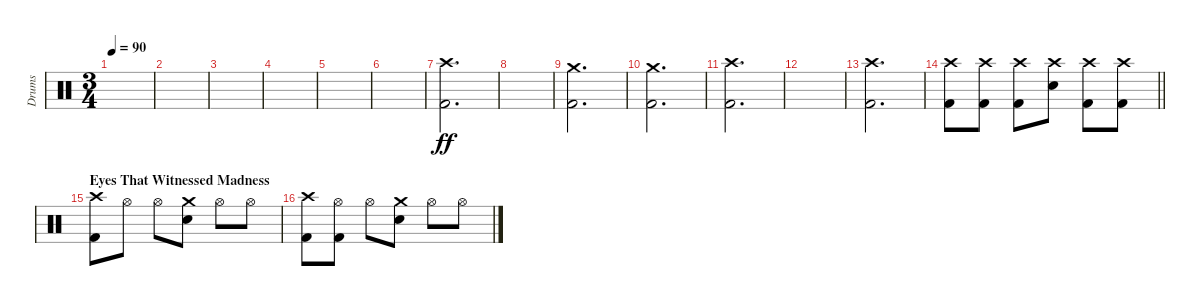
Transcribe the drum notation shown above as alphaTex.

\track ("Drums" "Drums") {instrument percussion}
\staff {score}
\articulation defaults
\ts (3 4)
\tempo 90
\clef neutral
\ks c
|
|
|
|
|
|
("Crash high (hit)" "Kick (hit) 2").2{d dy ff} |
|
("Crash medium (hit)" "Kick (hit) 2").2{d} |
("Crash medium (hit)" "Kick (hit) 2").2{d} |
("Crash high (hit)" "Kick (hit) 2").2{d} |
|
("Crash high (hit)" "Kick (hit) 2").2{d} |
\barLineRight lightlight
("Crash high (hit)" "Kick (hit) 2").8 ("Crash high (hit)" "Kick (hit) 2").8 ("Crash high (hit)" "Kick (hit) 2").8 ("Crash high (hit)" "Electric Snare (hit)").8 ("Crash high (hit)" "Kick (hit) 2").8 ("Crash high (hit)" "Kick (hit) 2").8 |
\section ("" "Eyes That Witnessed Madness")
("Crash high (hit)" "Kick (hit) 2").8 "Hi-Hat (open)".8 "Hi-Hat (open)".8 ("Crash medium (hit)" "Electric Snare (hit)").8 "Hi-Hat (open)".8 "Hi-Hat (open)".8 |
("Crash high (hit)" "Kick (hit) 2").8 ("Hi-Hat (open)" "Kick (hit) 2").8 "Hi-Hat (open)".8 ("Crash medium (hit)" "Electric Snare (hit)").8 "Hi-Hat (open)".8 "Hi-Hat (open)".8
